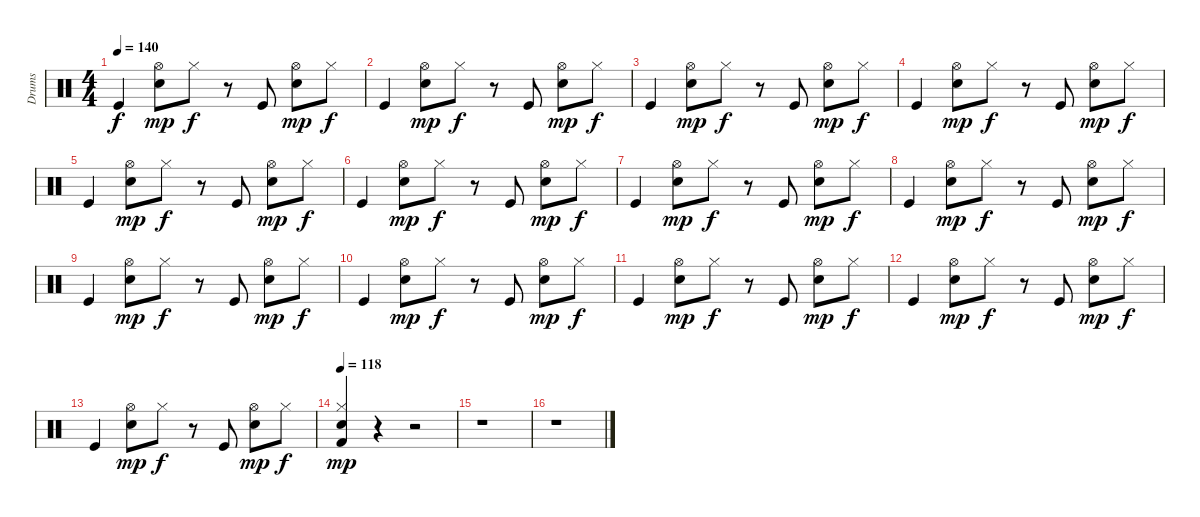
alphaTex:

\track ("Drums" "Drums") {instrument percussion}
\staff {score}
\articulation defaults
\ts (4 4)
\tempo 140
\clef neutral
\ks c "Kick (hit)".4{dy f}
("Hi-Hat (open)" "Snare (hit) 2").8{dy mp} "Hi-Hat (closed)".8{dy f} r.8 "Kick (hit)".8 ("Hi-Hat (open)" "Snare (hit) 2").8{dy mp} "Hi-Hat (closed)".8{dy f} |
"Kick (hit)".4 ("Hi-Hat (open)" "Snare (hit) 2").8{dy mp} "Hi-Hat (closed)".8{dy f} r.8 "Kick (hit)".8 ("Hi-Hat (open)" "Snare (hit) 2").8{dy mp} "Hi-Hat (closed)".8{dy f} |
"Kick (hit)".4 ("Hi-Hat (open)" "Snare (hit) 2").8{dy mp} "Hi-Hat (closed)".8{dy f} r.8 "Kick (hit)".8 ("Hi-Hat (open)" "Snare (hit) 2").8{dy mp} "Hi-Hat (closed)".8{dy f} |
"Kick (hit)".4 ("Hi-Hat (open)" "Snare (hit) 2").8{dy mp} "Hi-Hat (closed)".8{dy f} r.8 "Kick (hit)".8 ("Hi-Hat (open)" "Snare (hit) 2").8{dy mp} "Hi-Hat (closed)".8{dy f} |
"Kick (hit)".4 ("Hi-Hat (open)" "Snare (hit) 2").8{dy mp} "Hi-Hat (closed)".8{dy f} r.8 "Kick (hit)".8 ("Hi-Hat (open)" "Snare (hit) 2").8{dy mp} "Hi-Hat (closed)".8{dy f} |
"Kick (hit)".4{volume 12} ("Hi-Hat (open)" "Snare (hit) 2").8{dy mp} "Hi-Hat (closed)".8{dy f} r.8 "Kick (hit)".8 ("Hi-Hat (open)" "Snare (hit) 2").8{dy mp} "Hi-Hat (closed)".8{dy f} |
"Kick (hit)".4 ("Hi-Hat (open)" "Snare (hit) 2").8{dy mp} "Hi-Hat (closed)".8{dy f} r.8 "Kick (hit)".8 ("Hi-Hat (open)" "Snare (hit) 2").8{dy mp} "Hi-Hat (closed)".8{dy f} |
"Kick (hit)".4 ("Hi-Hat (open)" "Snare (hit) 2").8{dy mp} "Hi-Hat (closed)".8{dy f} r.8 "Kick (hit)".8 ("Hi-Hat (open)" "Snare (hit) 2").8{dy mp} "Hi-Hat (closed)".8{dy f} |
"Kick (hit)".4 ("Hi-Hat (open)" "Snare (hit) 2").8{dy mp} "Hi-Hat (closed)".8{dy f} r.8 "Kick (hit)".8 ("Hi-Hat (open)" "Snare (hit) 2").8{dy mp} "Hi-Hat (closed)".8{dy f} |
"Kick (hit)".4 ("Hi-Hat (open)" "Snare (hit) 2").8{dy mp} "Hi-Hat (closed)".8{dy f} r.8 "Kick (hit)".8 ("Hi-Hat (open)" "Snare (hit) 2").8{dy mp} "Hi-Hat (closed)".8{dy f} |
"Kick (hit)".4 ("Hi-Hat (open)" "Snare (hit) 2").8{dy mp} "Hi-Hat (closed)".8{dy f} r.8 "Kick (hit)".8 ("Hi-Hat (open)" "Snare (hit) 2").8{dy mp} "Hi-Hat (closed)".8{dy f} |
"Kick (hit)".4 ("Hi-Hat (open)" "Snare (hit) 2").8{dy mp} "Hi-Hat (closed)".8{dy f} r.8 "Kick (hit)".8 ("Hi-Hat (open)" "Snare (hit) 2").8{dy mp} "Hi-Hat (closed)".8{dy f} |
"Kick (hit)".4 ("Hi-Hat (open)" "Snare (hit) 2").8{dy mp} "Hi-Hat (closed)".8{dy f} r.8 "Kick (hit)".8 ("Hi-Hat (open)" "Snare (hit) 2").8{dy mp} "Hi-Hat (closed)".8{dy f} |
\tempo 118
("Hi-Hat (closed)" "Snare (hit) 2" "Kick (hit) 2").4{dy mp} r.4 r.2 |
r.1 |
r.1
